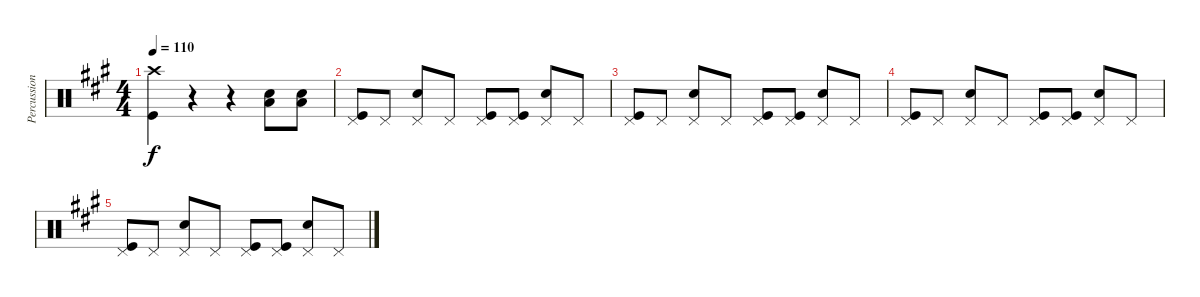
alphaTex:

\track ("Percussion" "Percussion") {instrument percussion}
\staff {score}
\articulation defaults
\ts (4 4)
\tempo 110
\clef neutral
\ks a
("Crash high (hit)" "Kick (hit)").4{dy f} r.4 r.4 ("Low Floor Tom (hit)" "Snare (hit) 2").8 ("Low Floor Tom (hit)" "Snare (hit) 2").8 |
("Pedal Hi-Hat (hit)" "Kick (hit)").8 "Pedal Hi-Hat (hit)".8 ("Pedal Hi-Hat (hit)" "Snare (hit) 2").8 "Pedal Hi-Hat (hit)".8 ("Pedal Hi-Hat (hit)" "Kick (hit)").8 ("Pedal Hi-Hat (hit)" "Kick (hit)").8 ("Pedal Hi-Hat (hit)" "Snare (hit) 2").8 "Pedal Hi-Hat (hit)".8 |
("Pedal Hi-Hat (hit)" "Kick (hit)").8 "Pedal Hi-Hat (hit)".8 ("Pedal Hi-Hat (hit)" "Snare (hit) 2").8 "Pedal Hi-Hat (hit)".8 ("Pedal Hi-Hat (hit)" "Kick (hit)").8 ("Pedal Hi-Hat (hit)" "Kick (hit)").8 ("Pedal Hi-Hat (hit)" "Snare (hit) 2").8 "Pedal Hi-Hat (hit)".8 |
("Pedal Hi-Hat (hit)" "Kick (hit)").8 "Pedal Hi-Hat (hit)".8 ("Pedal Hi-Hat (hit)" "Snare (hit) 2").8 "Pedal Hi-Hat (hit)".8 ("Pedal Hi-Hat (hit)" "Kick (hit)").8 ("Pedal Hi-Hat (hit)" "Kick (hit)").8 ("Pedal Hi-Hat (hit)" "Snare (hit) 2").8 "Pedal Hi-Hat (hit)".8 |
("Pedal Hi-Hat (hit)" "Kick (hit)").8 "Pedal Hi-Hat (hit)".8 ("Pedal Hi-Hat (hit)" "Snare (hit) 2").8 "Pedal Hi-Hat (hit)".8 ("Pedal Hi-Hat (hit)" "Kick (hit)").8 ("Pedal Hi-Hat (hit)" "Kick (hit)").8 ("Pedal Hi-Hat (hit)" "Snare (hit) 2").8 "Pedal Hi-Hat (hit)".8
